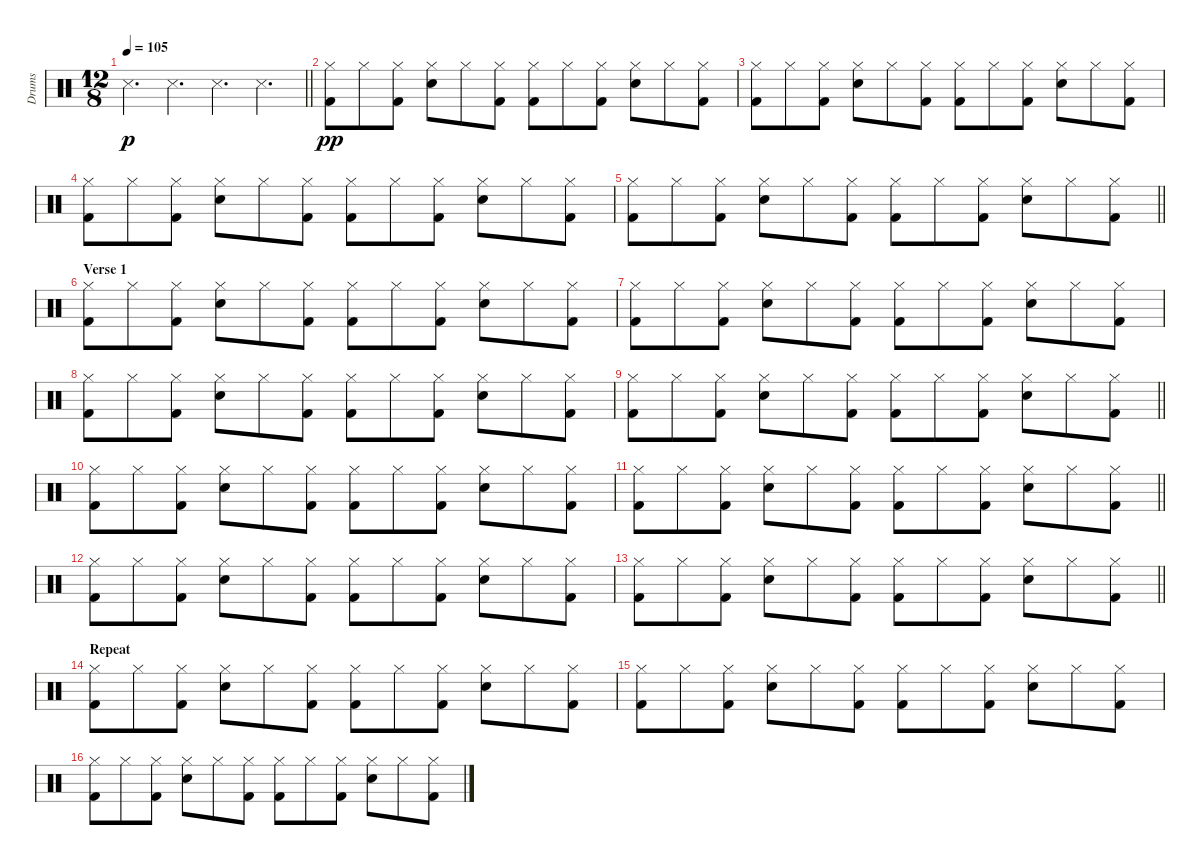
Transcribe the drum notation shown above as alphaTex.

\track ("Drums" "Drums") {instrument percussion}
\staff
\articulation defaults
\ts (12 8)
\tempo 105
\clef neutral
\barLineRight lightlight
\ks c "Metronome (hit)".4{d dy p} "Metronome (hit)".4{d} "Metronome (hit)".4{d} "Metronome (hit)".4{d}
|
("Hi-Hat (closed)" "Kick (hit) 2").8{dy pp} "Hi-Hat (closed)".8 ("Hi-Hat (closed)" "Kick (hit) 2").8 ("Hi-Hat (closed)" "Snare (hit) 2").8 "Hi-Hat (closed)".8 ("Hi-Hat (closed)" "Kick (hit) 2").8 ("Hi-Hat (closed)" "Kick (hit) 2").8 "Hi-Hat (closed)".8 ("Hi-Hat (closed)" "Kick (hit) 2").8 ("Hi-Hat (closed)" "Snare (hit) 2").8 "Hi-Hat (closed)".8 ("Hi-Hat (closed)" "Kick (hit) 2").8 |
("Hi-Hat (closed)" "Kick (hit) 2").8 "Hi-Hat (closed)".8 ("Hi-Hat (closed)" "Kick (hit) 2").8 ("Hi-Hat (closed)" "Snare (hit) 2").8 "Hi-Hat (closed)".8 ("Hi-Hat (closed)" "Kick (hit) 2").8 ("Hi-Hat (closed)" "Kick (hit) 2").8 "Hi-Hat (closed)".8 ("Hi-Hat (closed)" "Kick (hit) 2").8 ("Hi-Hat (closed)" "Snare (hit) 2").8 "Hi-Hat (closed)".8 ("Hi-Hat (closed)" "Kick (hit) 2").8 |
("Hi-Hat (closed)" "Kick (hit) 2").8 "Hi-Hat (closed)".8 ("Hi-Hat (closed)" "Kick (hit) 2").8 ("Hi-Hat (closed)" "Snare (hit) 2").8 "Hi-Hat (closed)".8 ("Hi-Hat (closed)" "Kick (hit) 2").8 ("Hi-Hat (closed)" "Kick (hit) 2").8 "Hi-Hat (closed)".8 ("Hi-Hat (closed)" "Kick (hit) 2").8 ("Hi-Hat (closed)" "Snare (hit) 2").8 "Hi-Hat (closed)".8 ("Hi-Hat (closed)" "Kick (hit) 2").8 |
\barLineRight lightlight
("Hi-Hat (closed)" "Kick (hit) 2").8 "Hi-Hat (closed)".8 ("Hi-Hat (closed)" "Kick (hit) 2").8 ("Hi-Hat (closed)" "Snare (hit) 2").8 "Hi-Hat (closed)".8 ("Hi-Hat (closed)" "Kick (hit) 2").8 ("Hi-Hat (closed)" "Kick (hit) 2").8 "Hi-Hat (closed)".8 ("Hi-Hat (closed)" "Kick (hit) 2").8 ("Hi-Hat (closed)" "Snare (hit) 2").8 "Hi-Hat (closed)".8 ("Hi-Hat (closed)" "Kick (hit) 2").8 |
\section ("" "Verse 1")
("Hi-Hat (closed)" "Kick (hit) 2").8 "Hi-Hat (closed)".8 ("Hi-Hat (closed)" "Kick (hit) 2").8 ("Hi-Hat (closed)" "Snare (hit) 2").8 "Hi-Hat (closed)".8 ("Hi-Hat (closed)" "Kick (hit) 2").8 ("Hi-Hat (closed)" "Kick (hit) 2").8 "Hi-Hat (closed)".8 ("Hi-Hat (closed)" "Kick (hit) 2").8 ("Hi-Hat (closed)" "Snare (hit) 2").8 "Hi-Hat (closed)".8 ("Hi-Hat (closed)" "Kick (hit) 2").8 |
("Hi-Hat (closed)" "Kick (hit) 2").8 "Hi-Hat (closed)".8 ("Hi-Hat (closed)" "Kick (hit) 2").8 ("Hi-Hat (closed)" "Snare (hit) 2").8 "Hi-Hat (closed)".8 ("Hi-Hat (closed)" "Kick (hit) 2").8 ("Hi-Hat (closed)" "Kick (hit) 2").8 "Hi-Hat (closed)".8 ("Hi-Hat (closed)" "Kick (hit) 2").8 ("Hi-Hat (closed)" "Snare (hit) 2").8 "Hi-Hat (closed)".8 ("Hi-Hat (closed)" "Kick (hit) 2").8 |
("Hi-Hat (closed)" "Kick (hit) 2").8 "Hi-Hat (closed)".8 ("Hi-Hat (closed)" "Kick (hit) 2").8 ("Hi-Hat (closed)" "Snare (hit) 2").8 "Hi-Hat (closed)".8 ("Hi-Hat (closed)" "Kick (hit) 2").8 ("Hi-Hat (closed)" "Kick (hit) 2").8 "Hi-Hat (closed)".8 ("Hi-Hat (closed)" "Kick (hit) 2").8 ("Hi-Hat (closed)" "Snare (hit) 2").8 "Hi-Hat (closed)".8 ("Hi-Hat (closed)" "Kick (hit) 2").8 |
\barLineRight lightlight
("Hi-Hat (closed)" "Kick (hit) 2").8 "Hi-Hat (closed)".8 ("Hi-Hat (closed)" "Kick (hit) 2").8 ("Hi-Hat (closed)" "Snare (hit) 2").8 "Hi-Hat (closed)".8 ("Hi-Hat (closed)" "Kick (hit) 2").8 ("Hi-Hat (closed)" "Kick (hit) 2").8 "Hi-Hat (closed)".8 ("Hi-Hat (closed)" "Kick (hit) 2").8 ("Hi-Hat (closed)" "Snare (hit) 2").8 "Hi-Hat (closed)".8 ("Hi-Hat (closed)" "Kick (hit) 2").8 |
("Hi-Hat (closed)" "Kick (hit) 2").8 "Hi-Hat (closed)".8 ("Hi-Hat (closed)" "Kick (hit) 2").8 ("Hi-Hat (closed)" "Snare (hit) 2").8 "Hi-Hat (closed)".8 ("Hi-Hat (closed)" "Kick (hit) 2").8 ("Hi-Hat (closed)" "Kick (hit) 2").8 "Hi-Hat (closed)".8 ("Hi-Hat (closed)" "Kick (hit) 2").8 ("Hi-Hat (closed)" "Snare (hit) 2").8 "Hi-Hat (closed)".8 ("Hi-Hat (closed)" "Kick (hit) 2").8 |
\barLineRight lightlight
("Hi-Hat (closed)" "Kick (hit) 2").8 "Hi-Hat (closed)".8 ("Hi-Hat (closed)" "Kick (hit) 2").8 ("Hi-Hat (closed)" "Snare (hit) 2").8 "Hi-Hat (closed)".8 ("Hi-Hat (closed)" "Kick (hit) 2").8 ("Hi-Hat (closed)" "Kick (hit) 2").8 "Hi-Hat (closed)".8 ("Hi-Hat (closed)" "Kick (hit) 2").8 ("Hi-Hat (closed)" "Snare (hit) 2").8 "Hi-Hat (closed)".8 ("Hi-Hat (closed)" "Kick (hit) 2").8 |
("Hi-Hat (closed)" "Kick (hit) 2").8 "Hi-Hat (closed)".8 ("Hi-Hat (closed)" "Kick (hit) 2").8 ("Hi-Hat (closed)" "Snare (hit) 2").8 "Hi-Hat (closed)".8 ("Hi-Hat (closed)" "Kick (hit) 2").8 ("Hi-Hat (closed)" "Kick (hit) 2").8 "Hi-Hat (closed)".8 ("Hi-Hat (closed)" "Kick (hit) 2").8 ("Hi-Hat (closed)" "Snare (hit) 2").8 "Hi-Hat (closed)".8 ("Hi-Hat (closed)" "Kick (hit) 2").8 |
\barLineRight lightlight
("Hi-Hat (closed)" "Kick (hit) 2").8 "Hi-Hat (closed)".8 ("Hi-Hat (closed)" "Kick (hit) 2").8 ("Hi-Hat (closed)" "Snare (hit) 2").8 "Hi-Hat (closed)".8 ("Hi-Hat (closed)" "Kick (hit) 2").8 ("Hi-Hat (closed)" "Kick (hit) 2").8 "Hi-Hat (closed)".8 ("Hi-Hat (closed)" "Kick (hit) 2").8 ("Hi-Hat (closed)" "Snare (hit) 2").8 "Hi-Hat (closed)".8 ("Hi-Hat (closed)" "Kick (hit) 2").8 |
\section ("" "Repeat")
("Hi-Hat (closed)" "Kick (hit) 2").8 "Hi-Hat (closed)".8 ("Hi-Hat (closed)" "Kick (hit) 2").8 ("Hi-Hat (closed)" "Snare (hit) 2").8 "Hi-Hat (closed)".8 ("Hi-Hat (closed)" "Kick (hit) 2").8 ("Hi-Hat (closed)" "Kick (hit) 2").8 "Hi-Hat (closed)".8 ("Hi-Hat (closed)" "Kick (hit) 2").8 ("Hi-Hat (closed)" "Snare (hit) 2").8 "Hi-Hat (closed)".8 ("Hi-Hat (closed)" "Kick (hit) 2").8 |
("Hi-Hat (closed)" "Kick (hit) 2").8 "Hi-Hat (closed)".8 ("Hi-Hat (closed)" "Kick (hit) 2").8 ("Hi-Hat (closed)" "Snare (hit) 2").8 "Hi-Hat (closed)".8 ("Hi-Hat (closed)" "Kick (hit) 2").8 ("Hi-Hat (closed)" "Kick (hit) 2").8 "Hi-Hat (closed)".8 ("Hi-Hat (closed)" "Kick (hit) 2").8 ("Hi-Hat (closed)" "Snare (hit) 2").8 "Hi-Hat (closed)".8 ("Hi-Hat (closed)" "Kick (hit) 2").8 |
("Hi-Hat (closed)" "Kick (hit) 2").8 "Hi-Hat (closed)".8 ("Hi-Hat (closed)" "Kick (hit) 2").8 ("Hi-Hat (closed)" "Snare (hit) 2").8 "Hi-Hat (closed)".8 ("Hi-Hat (closed)" "Kick (hit) 2").8 ("Hi-Hat (closed)" "Kick (hit) 2").8 "Hi-Hat (closed)".8 ("Hi-Hat (closed)" "Kick (hit) 2").8 ("Hi-Hat (closed)" "Snare (hit) 2").8 "Hi-Hat (closed)".8 ("Hi-Hat (closed)" "Kick (hit) 2").8
